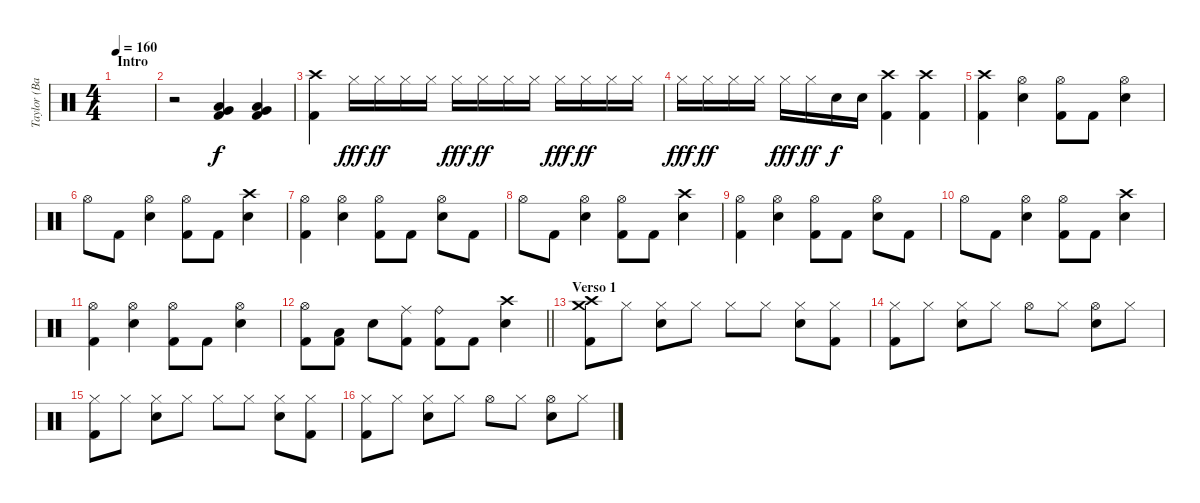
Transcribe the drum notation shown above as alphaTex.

\track ("Taylor (Batería)" "Taylor (Ba") {instrument percussion}
\staff {score}
\articulation defaults
\ts (4 4)
\section ("" "Intro")
\tempo 160
\clef neutral
\ks c
|
r.2 ("Low Tom (hit)" "Very Low Tom (hit)" "Kick (hit) 2").4 ("Low Tom (hit)" "Very Low Tom (hit)" "Kick (hit) 2").4 |
("Crash high (hit)" "Kick (hit) 2").4 "Hi-Hat (closed)".16{dy fff} "Hi-Hat (closed)".16{dy ff} "Hi-Hat (closed)".16 "Hi-Hat (closed)".16 "Hi-Hat (closed)".16{dy fff} "Hi-Hat (closed)".16{dy ff} "Hi-Hat (closed)".16 "Hi-Hat (closed)".16 "Hi-Hat (closed)".16{dy fff} "Hi-Hat (closed)".16{dy ff} "Hi-Hat (closed)".16 "Hi-Hat (closed)".16 |
"Hi-Hat (closed)".16{dy fff} "Hi-Hat (closed)".16{dy ff} "Hi-Hat (closed)".16 "Hi-Hat (closed)".16 "Hi-Hat (closed)".16{dy fff} "Hi-Hat (closed)".16{dy ff} "Electric Snare (hit)".16{dy f} "Electric Snare (hit)".16 ("Crash high (hit)" "Kick (hit) 2").4 ("Crash high (hit)" "Kick (hit) 2").4 |
("Crash high (hit)" "Kick (hit) 2").4 ("Hi-Hat (open)" "Electric Snare (hit)").4 ("Hi-Hat (open)" "Kick (hit) 2").8 "Kick (hit) 2".8 ("Hi-Hat (open)" "Electric Snare (hit)").4 |
"Hi-Hat (open)".8 "Kick (hit) 2".8 ("Hi-Hat (open)" "Electric Snare (hit)").4 ("Hi-Hat (open)" "Kick (hit) 2").8 "Kick (hit) 2".8 ("Crash high (hit)" "Electric Snare (hit)").4 |
("Hi-Hat (open)" "Kick (hit) 2").4 ("Hi-Hat (open)" "Electric Snare (hit)").4 ("Hi-Hat (open)" "Kick (hit) 2").8 "Kick (hit) 2".8 ("Hi-Hat (open)" "Electric Snare (hit)").8 "Kick (hit) 2".8 |
"Hi-Hat (open)".8 "Kick (hit) 2".8 ("Hi-Hat (open)" "Electric Snare (hit)").4 ("Hi-Hat (open)" "Kick (hit) 2").8 "Kick (hit) 2".8 ("Crash high (hit)" "Electric Snare (hit)").4 |
("Hi-Hat (open)" "Kick (hit) 2").4 ("Hi-Hat (open)" "Electric Snare (hit)").4 ("Hi-Hat (open)" "Kick (hit) 2").8 "Kick (hit) 2".8 ("Hi-Hat (open)" "Electric Snare (hit)").8 "Kick (hit) 2".8 |
"Hi-Hat (open)".8 "Kick (hit) 2".8 ("Hi-Hat (open)" "Electric Snare (hit)").4 ("Hi-Hat (open)" "Kick (hit) 2").8 "Kick (hit) 2".8 ("Crash high (hit)" "Electric Snare (hit)").4 |
("Hi-Hat (open)" "Kick (hit) 2").4 ("Hi-Hat (open)" "Electric Snare (hit)").4 ("Hi-Hat (open)" "Kick (hit) 2").8 "Kick (hit) 2".8 ("Hi-Hat (open)" "Electric Snare (hit)").4 |
\barLineRight lightlight
("Hi-Hat (open)" "Kick (hit) 2").8 ("Low Tom (hit)" "Kick (hit) 2").8 "Electric Snare (hit)".8 ("Ride (middle)" "Kick (hit) 2").8 ("Ride (bell)" "Kick (hit) 2").8 "Kick (hit) 2".8 ("Crash high (hit)" "Electric Snare (hit)").4 |
\section ("" "Verso 1")
("Crash high (hit)" "Crash medium (hit)" "Kick (hit) 2").8 "Hi-Hat (closed)".8 ("Hi-Hat (closed)" "Electric Snare (hit)").8 "Hi-Hat (closed)".8 "Hi-Hat (closed)".8 "Hi-Hat (closed)".8 ("Hi-Hat (closed)" "Electric Snare (hit)").8 ("Hi-Hat (closed)" "Kick (hit) 2").8 |
("Hi-Hat (closed)" "Kick (hit) 2").8 "Hi-Hat (closed)".8 ("Hi-Hat (closed)" "Electric Snare (hit)").8 "Hi-Hat (closed)".8 "Hi-Hat (open)".8 "Hi-Hat (closed)".8 ("Hi-Hat (open)" "Electric Snare (hit)").8 "Hi-Hat (closed)".8 |
("Hi-Hat (closed)" "Kick (hit) 2").8 "Hi-Hat (closed)".8 ("Hi-Hat (closed)" "Electric Snare (hit)").8 "Hi-Hat (closed)".8 "Hi-Hat (closed)".8 "Hi-Hat (closed)".8 ("Hi-Hat (closed)" "Electric Snare (hit)").8 ("Hi-Hat (closed)" "Kick (hit) 2").8 |
("Hi-Hat (closed)" "Kick (hit) 2").8 "Hi-Hat (closed)".8 ("Hi-Hat (closed)" "Electric Snare (hit)").8 "Hi-Hat (closed)".8 "Hi-Hat (open)".8 "Hi-Hat (closed)".8 ("Hi-Hat (open)" "Electric Snare (hit)").8 "Hi-Hat (closed)".8
